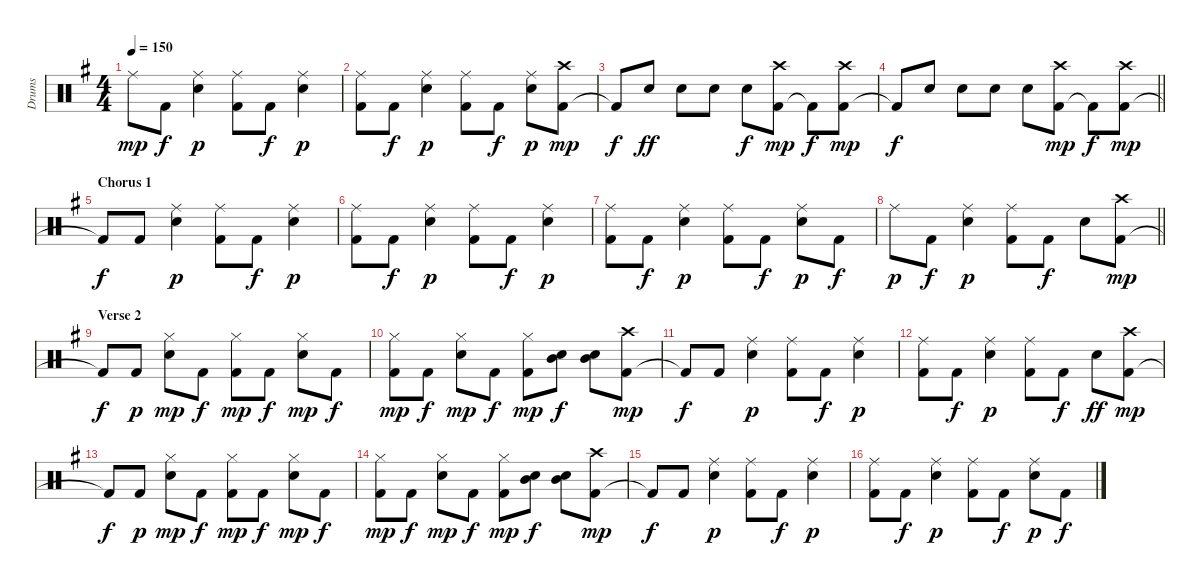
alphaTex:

\track ("Drums" "Drums") {instrument percussion}
\staff {score}
\articulation defaults
\ts (4 4)
\tempo 150
\clef neutral
\ks g "Ride (middle)".8{dy mp} "Kick (hit) 2".8{dy f}
("Electric Snare (hit)" "Ride (middle)").4{dy p} ("Kick (hit) 2" "Ride (middle)").8 "Kick (hit) 2".8{dy f} ("Electric Snare (hit)" "Ride (middle)").4{dy p} |
("Kick (hit) 2" "Ride (middle)").8 "Kick (hit) 2".8{dy f} ("Electric Snare (hit)" "Ride (middle)").4{dy p} ("Kick (hit) 2" "Ride (middle)").8 "Kick (hit) 2".8{dy f} ("Electric Snare (hit)" "Ride (middle)").8{dy p} ("Kick (hit) 2" "Crash high (hit)").8{dy mp} |
"Kick (hit) 2"{t}.8{dy f} "Electric Snare (hit)".8{dy ff} "Electric Snare (hit)".8 "Electric Snare (hit)".8 "Electric Snare (hit)".8{dy f} ("Kick (hit) 2" "Crash high (hit)").8{dy mp} "Kick (hit) 2"{t}.8{dy f} ("Kick (hit) 2" "Crash high (hit)").8{dy mp} |
\barLineRight lightlight "Kick (hit) 2"{t}.8{dy f} "Electric Snare (hit)".8 "Electric Snare (hit)".8 "Electric Snare (hit)".8 "Electric Snare (hit)".8
("Kick (hit) 2" "Crash high (hit)").8{dy mp} "Kick (hit) 2"{t}.8{dy f} ("Kick (hit) 2" "Crash high (hit)").8{dy mp} |
\section ("" "Chorus 1")
"Kick (hit) 2"{t}.8{dy f} "Kick (hit) 2".8 ("Electric Snare (hit)" "Ride (middle)").4{dy p} ("Kick (hit) 2" "Ride (middle)").8 "Kick (hit) 2".8{dy f} ("Electric Snare (hit)" "Ride (middle)").4{dy p} |
("Kick (hit) 2" "Ride (middle)").8 "Kick (hit) 2".8{dy f} ("Electric Snare (hit)" "Ride (middle)").4{dy p} ("Kick (hit) 2" "Ride (middle)").8 "Kick (hit) 2".8{dy f} ("Electric Snare (hit)" "Ride (middle)").4{dy p} |
("Kick (hit) 2" "Ride (middle)").8 "Kick (hit) 2".8{dy f} ("Electric Snare (hit)" "Ride (middle)").4{dy p} ("Kick (hit) 2" "Ride (middle)").8 "Kick (hit) 2".8{dy f} ("Electric Snare (hit)" "Ride (middle)").8{dy p} "Kick (hit) 2".8{dy f} |
\barLineRight lightlight "Ride (middle)".8{dy p} "Kick (hit) 2".8{dy f}
("Electric Snare (hit)" "Ride (middle)").4{dy p} ("Kick (hit) 2" "Ride (middle)").8 "Kick (hit) 2".8{dy f} "Electric Snare (hit)".8 ("Kick (hit) 2" "Crash high (hit)").8{dy mp} |
\section ("" "Verse 2")
"Kick (hit) 2"{t}.8{dy f} "Kick (hit) 2".8{dy p} ("Electric Snare (hit)" "Hi-Hat (closed)").8{dy mp} "Kick (hit) 2".8{dy f} ("Kick (hit) 2" "Hi-Hat (closed)").8{dy mp} "Kick (hit) 2".8{dy f} ("Electric Snare (hit)" "Hi-Hat (closed)").8{dy mp} "Kick (hit) 2".8{dy f} |
("Kick (hit) 2" "Hi-Hat (closed)").8{dy mp} "Kick (hit) 2".8{dy f} ("Electric Snare (hit)" "Hi-Hat (closed)").8{dy mp} "Kick (hit) 2".8{dy f} ("Kick (hit) 2" "Hi-Hat (closed)").8{dy mp} ("Electric Snare (hit)" "Mid Tom (hit)").8{dy f} ("Electric Snare (hit)" "Mid Tom (hit)").8 ("Kick (hit) 2" "Crash high (hit)").8{dy mp} |
"Kick (hit) 2"{t}.8{dy f} "Kick (hit) 2".8 ("Electric Snare (hit)" "Ride (middle)").4{dy p} ("Kick (hit) 2" "Ride (middle)").8 "Kick (hit) 2".8{dy f} ("Electric Snare (hit)" "Ride (middle)").4{dy p} |
("Kick (hit) 2" "Ride (middle)").8 "Kick (hit) 2".8{dy f} ("Electric Snare (hit)" "Ride (middle)").4{dy p} ("Kick (hit) 2" "Ride (middle)").8 "Kick (hit) 2".8{dy f} "Electric Snare (hit)".8{dy ff} ("Kick (hit) 2" "Crash high (hit)").8{dy mp} |
"Kick (hit) 2"{t}.8{dy f} "Kick (hit) 2".8{dy p} ("Electric Snare (hit)" "Hi-Hat (closed)").8{dy mp} "Kick (hit) 2".8{dy f} ("Kick (hit) 2" "Hi-Hat (closed)").8{dy mp} "Kick (hit) 2".8{dy f} ("Electric Snare (hit)" "Hi-Hat (closed)").8{dy mp} "Kick (hit) 2".8{dy f} |
("Kick (hit) 2" "Hi-Hat (closed)").8{dy mp} "Kick (hit) 2".8{dy f} ("Electric Snare (hit)" "Hi-Hat (closed)").8{dy mp} "Kick (hit) 2".8{dy f} ("Kick (hit) 2" "Hi-Hat (closed)").8{dy mp} ("Electric Snare (hit)" "Mid Tom (hit)").8{dy f} ("Electric Snare (hit)" "Mid Tom (hit)").8 ("Kick (hit) 2" "Crash high (hit)").8{dy mp} |
"Kick (hit) 2"{t}.8{dy f} "Kick (hit) 2".8 ("Electric Snare (hit)" "Ride (middle)").4{dy p} ("Kick (hit) 2" "Ride (middle)").8 "Kick (hit) 2".8{dy f} ("Electric Snare (hit)" "Ride (middle)").4{dy p} |
("Kick (hit) 2" "Ride (middle)").8 "Kick (hit) 2".8{dy f} ("Electric Snare (hit)" "Ride (middle)").4{dy p} ("Kick (hit) 2" "Ride (middle)").8 "Kick (hit) 2".8{dy f} ("Electric Snare (hit)" "Ride (middle)").8{dy p} "Kick (hit) 2".8{dy f}
